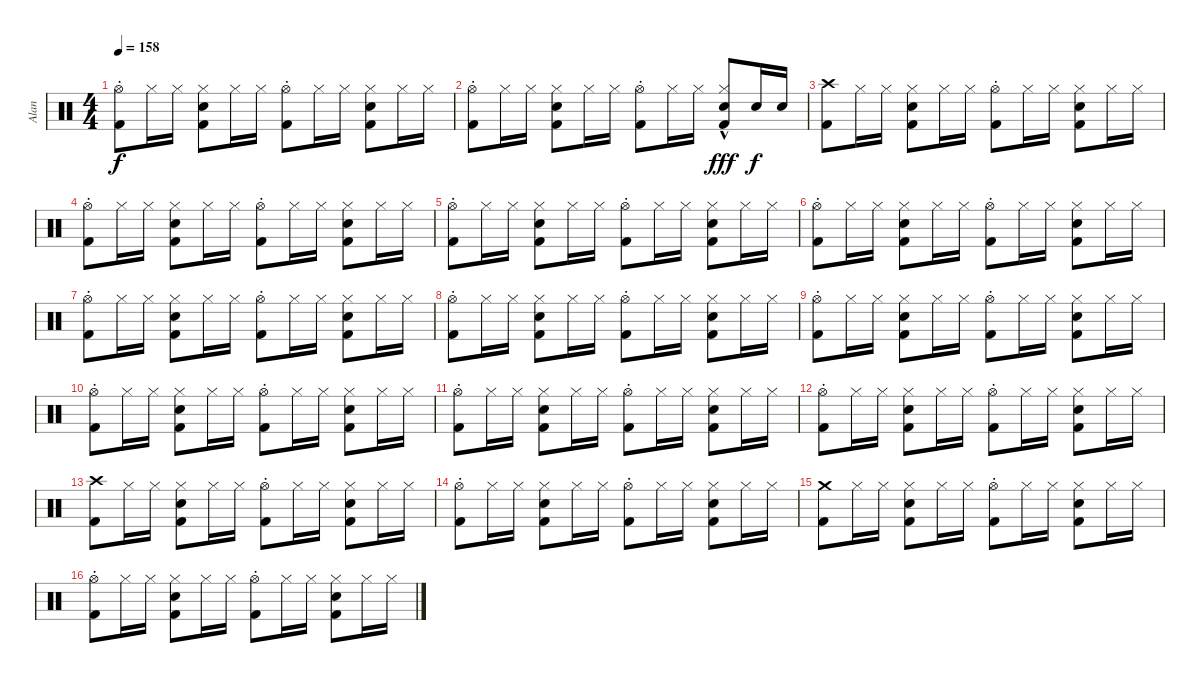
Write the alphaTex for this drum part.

\track ("Alan" "Alan") {instrument percussion}
\staff {score}
\articulation defaults
\ts (4 4)
\tempo 158
\clef neutral
\ks c
("Hi-Hat (open)"{st} "Kick (hit) 2").8{dy f} "Hi-Hat (closed)".16 "Hi-Hat (closed)".16 ("Hi-Hat (closed)" "Kick (hit) 2" "Snare (hit) 2").8 "Hi-Hat (closed)".16 "Hi-Hat (closed)".16 ("Hi-Hat (open)"{st} "Kick (hit) 2").8 "Hi-Hat (closed)".16 "Hi-Hat (closed)".16 ("Hi-Hat (closed)" "Kick (hit) 2" "Snare (hit) 2").8 "Hi-Hat (closed)".16 "Hi-Hat (closed)".16 |
("Hi-Hat (open)"{st} "Kick (hit) 2").8 "Hi-Hat (closed)".16 "Hi-Hat (closed)".16 ("Hi-Hat (closed)" "Kick (hit) 2" "Snare (hit) 2").8 "Hi-Hat (closed)".16 "Hi-Hat (closed)".16 ("Hi-Hat (open)"{st} "Kick (hit) 2").8 "Hi-Hat (closed)".16 "Hi-Hat (closed)".16 ("Hi-Hat (closed)" "Kick (hit) 2" "Snare (hit) 2"{hac}).8{dy fff} "Snare (hit) 2".16{dy f} "Snare (hit) 2".16 |
("Crash high (hit)" "Kick (hit) 2").8 "Hi-Hat (closed)".16 "Hi-Hat (closed)".16 ("Hi-Hat (closed)" "Kick (hit) 2" "Snare (hit) 2").8 "Hi-Hat (closed)".16 "Hi-Hat (closed)".16 ("Hi-Hat (open)"{st} "Kick (hit) 2").8 "Hi-Hat (closed)".16 "Hi-Hat (closed)".16 ("Hi-Hat (closed)" "Kick (hit) 2" "Snare (hit) 2").8 "Hi-Hat (closed)".16 "Hi-Hat (closed)".16 |
("Hi-Hat (open)"{st} "Kick (hit) 2").8 "Hi-Hat (closed)".16 "Hi-Hat (closed)".16 ("Hi-Hat (closed)" "Kick (hit) 2" "Snare (hit) 2").8 "Hi-Hat (closed)".16 "Hi-Hat (closed)".16 ("Hi-Hat (open)"{st} "Kick (hit) 2").8 "Hi-Hat (closed)".16 "Hi-Hat (closed)".16 ("Hi-Hat (closed)" "Kick (hit) 2" "Snare (hit) 2").8 "Hi-Hat (closed)".16 "Hi-Hat (closed)".16 |
("Hi-Hat (open)"{st} "Kick (hit) 2").8 "Hi-Hat (closed)".16 "Hi-Hat (closed)".16 ("Hi-Hat (closed)" "Kick (hit) 2" "Snare (hit) 2").8 "Hi-Hat (closed)".16 "Hi-Hat (closed)".16 ("Hi-Hat (open)"{st} "Kick (hit) 2").8 "Hi-Hat (closed)".16 "Hi-Hat (closed)".16 ("Hi-Hat (closed)" "Kick (hit) 2" "Snare (hit) 2").8 "Hi-Hat (closed)".16 "Hi-Hat (closed)".16 |
("Hi-Hat (open)"{st} "Kick (hit) 2").8 "Hi-Hat (closed)".16 "Hi-Hat (closed)".16 ("Hi-Hat (closed)" "Kick (hit) 2" "Snare (hit) 2").8 "Hi-Hat (closed)".16 "Hi-Hat (closed)".16 ("Hi-Hat (open)"{st} "Kick (hit) 2").8 "Hi-Hat (closed)".16 "Hi-Hat (closed)".16 ("Hi-Hat (closed)" "Kick (hit) 2" "Snare (hit) 2").8 "Hi-Hat (closed)".16 "Hi-Hat (closed)".16 |
("Hi-Hat (open)"{st} "Kick (hit) 2").8 "Hi-Hat (closed)".16 "Hi-Hat (closed)".16 ("Hi-Hat (closed)" "Kick (hit) 2" "Snare (hit) 2").8 "Hi-Hat (closed)".16 "Hi-Hat (closed)".16 ("Hi-Hat (open)"{st} "Kick (hit) 2").8 "Hi-Hat (closed)".16 "Hi-Hat (closed)".16 ("Hi-Hat (closed)" "Kick (hit) 2" "Snare (hit) 2").8 "Hi-Hat (closed)".16 "Hi-Hat (closed)".16 |
("Hi-Hat (open)"{st} "Kick (hit) 2").8 "Hi-Hat (closed)".16 "Hi-Hat (closed)".16 ("Hi-Hat (closed)" "Kick (hit) 2" "Snare (hit) 2").8 "Hi-Hat (closed)".16 "Hi-Hat (closed)".16 ("Hi-Hat (open)"{st} "Kick (hit) 2").8 "Hi-Hat (closed)".16 "Hi-Hat (closed)".16 ("Hi-Hat (closed)" "Kick (hit) 2" "Snare (hit) 2").8 "Hi-Hat (closed)".16 "Hi-Hat (closed)".16 |
("Hi-Hat (open)"{st} "Kick (hit) 2").8 "Hi-Hat (closed)".16 "Hi-Hat (closed)".16 ("Hi-Hat (closed)" "Kick (hit) 2" "Snare (hit) 2").8 "Hi-Hat (closed)".16 "Hi-Hat (closed)".16 ("Hi-Hat (open)"{st} "Kick (hit) 2").8 "Hi-Hat (closed)".16 "Hi-Hat (closed)".16 ("Hi-Hat (closed)" "Kick (hit) 2" "Snare (hit) 2").8 "Hi-Hat (closed)".16 "Hi-Hat (closed)".16 |
("Hi-Hat (open)"{st} "Kick (hit) 2").8 "Hi-Hat (closed)".16 "Hi-Hat (closed)".16 ("Hi-Hat (closed)" "Kick (hit) 2" "Snare (hit) 2").8 "Hi-Hat (closed)".16 "Hi-Hat (closed)".16 ("Hi-Hat (open)"{st} "Kick (hit) 2").8 "Hi-Hat (closed)".16 "Hi-Hat (closed)".16 ("Hi-Hat (closed)" "Kick (hit) 2" "Snare (hit) 2").8 "Hi-Hat (closed)".16 "Hi-Hat (closed)".16 |
("Hi-Hat (open)"{st} "Kick (hit) 2").8 "Hi-Hat (closed)".16 "Hi-Hat (closed)".16 ("Hi-Hat (closed)" "Kick (hit) 2" "Snare (hit) 2").8 "Hi-Hat (closed)".16 "Hi-Hat (closed)".16 ("Hi-Hat (open)"{st} "Kick (hit) 2").8 "Hi-Hat (closed)".16 "Hi-Hat (closed)".16 ("Hi-Hat (closed)" "Kick (hit) 2" "Snare (hit) 2").8 "Hi-Hat (closed)".16 "Hi-Hat (closed)".16 |
("Hi-Hat (open)"{st} "Kick (hit) 2").8 "Hi-Hat (closed)".16 "Hi-Hat (closed)".16 ("Hi-Hat (closed)" "Kick (hit) 2" "Snare (hit) 2").8 "Hi-Hat (closed)".16 "Hi-Hat (closed)".16 ("Hi-Hat (open)"{st} "Kick (hit) 2").8 "Hi-Hat (closed)".16 "Hi-Hat (closed)".16 ("Hi-Hat (closed)" "Kick (hit) 2" "Snare (hit) 2").8 "Hi-Hat (closed)".16 "Hi-Hat (closed)".16 |
("Kick (hit) 2" "Crash high (hit)").8 "Hi-Hat (closed)".16 "Hi-Hat (closed)".16 ("Hi-Hat (closed)" "Kick (hit) 2" "Snare (hit) 2").8 "Hi-Hat (closed)".16 "Hi-Hat (closed)".16 ("Hi-Hat (open)"{st} "Kick (hit) 2").8 "Hi-Hat (closed)".16 "Hi-Hat (closed)".16 ("Hi-Hat (closed)" "Kick (hit) 2" "Snare (hit) 2").8 "Hi-Hat (closed)".16 "Hi-Hat (closed)".16 |
("Hi-Hat (open)"{st} "Kick (hit) 2").8 "Hi-Hat (closed)".16 "Hi-Hat (closed)".16 ("Hi-Hat (closed)" "Kick (hit) 2" "Snare (hit) 2").8 "Hi-Hat (closed)".16 "Hi-Hat (closed)".16 ("Hi-Hat (open)"{st} "Kick (hit) 2").8 "Hi-Hat (closed)".16 "Hi-Hat (closed)".16 ("Hi-Hat (closed)" "Kick (hit) 2" "Snare (hit) 2").8 "Hi-Hat (closed)".16 "Hi-Hat (closed)".16 |
("Crash medium (hit)" "Kick (hit) 2").8 "Hi-Hat (closed)".16 "Hi-Hat (closed)".16 ("Hi-Hat (closed)" "Kick (hit) 2" "Snare (hit) 2").8 "Hi-Hat (closed)".16 "Hi-Hat (closed)".16 ("Hi-Hat (open)"{st} "Kick (hit) 2").8 "Hi-Hat (closed)".16 "Hi-Hat (closed)".16 ("Hi-Hat (closed)" "Kick (hit) 2" "Snare (hit) 2").8 "Hi-Hat (closed)".16 "Hi-Hat (closed)".16 |
("Hi-Hat (open)"{st} "Kick (hit) 2").8 "Hi-Hat (closed)".16 "Hi-Hat (closed)".16 ("Hi-Hat (closed)" "Kick (hit) 2" "Snare (hit) 2").8 "Hi-Hat (closed)".16 "Hi-Hat (closed)".16 ("Hi-Hat (open)"{st} "Kick (hit) 2").8 "Hi-Hat (closed)".16 "Hi-Hat (closed)".16 ("Hi-Hat (closed)" "Kick (hit) 2" "Snare (hit) 2").8 "Hi-Hat (closed)".16 "Hi-Hat (closed)".16
